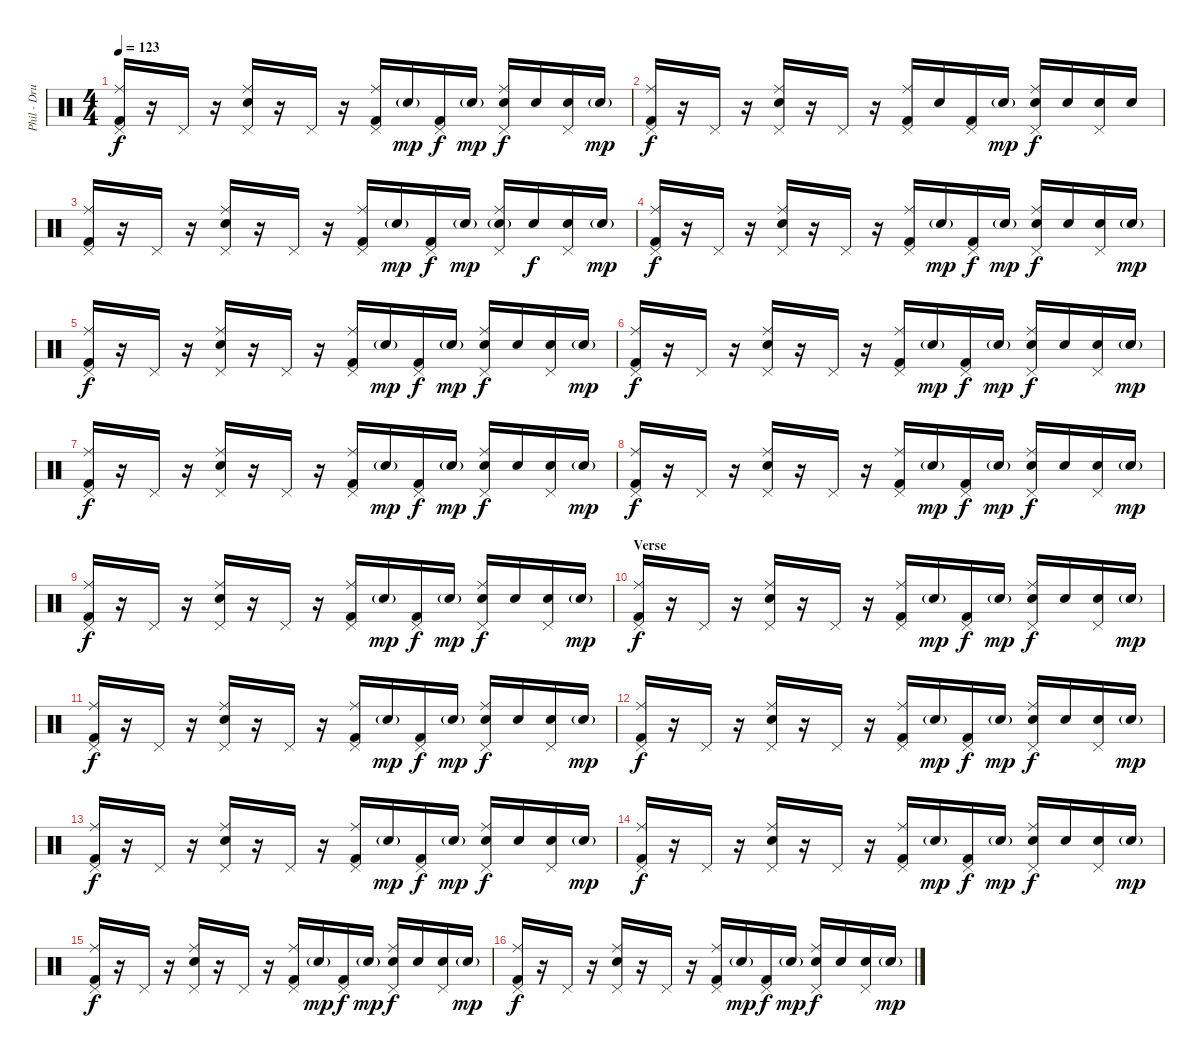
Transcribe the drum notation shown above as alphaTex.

\track ("Phil - Drums" "Phil - Dru") {instrument percussion}
\staff {score}
\articulation defaults
\ts (4 4)
\tempo 123
\clef neutral
\ks c
("Ride (middle)" "Kick (hit) 2" "Pedal Hi-Hat (hit)").16{dy f} r.16 "Pedal Hi-Hat (hit)".16 r.16 ("Ride (middle)" "Snare (hit) 2" "Pedal Hi-Hat (hit)").16 r.16 "Pedal Hi-Hat (hit)".16 r.16 ("Ride (middle)" "Kick (hit) 2" "Pedal Hi-Hat (hit)").16 "Snare (hit) 2"{g}.16{dy mp} ("Kick (hit) 2" "Pedal Hi-Hat (hit)").16{dy f} "Snare (hit) 2"{g}.16{dy mp} ("Ride (middle)" "Snare (hit) 2" "Pedal Hi-Hat (hit)").16{dy f} "Snare (hit) 2".16 ("Snare (hit) 2" "Pedal Hi-Hat (hit)").16 "Snare (hit) 2"{g}.16{dy mp} |
("Ride (middle)" "Kick (hit) 2" "Pedal Hi-Hat (hit)").16{dy f} r.16 "Pedal Hi-Hat (hit)".16 r.16 ("Ride (middle)" "Snare (hit) 2" "Pedal Hi-Hat (hit)").16 r.16 "Pedal Hi-Hat (hit)".16 r.16 ("Ride (middle)" "Kick (hit) 2" "Pedal Hi-Hat (hit)").16 "Snare (hit) 2".16 ("Kick (hit) 2" "Pedal Hi-Hat (hit)").16 "Snare (hit) 2"{g}.16{dy mp} ("Ride (middle)" "Snare (hit) 2" "Pedal Hi-Hat (hit)").16{dy f} "Snare (hit) 2".16 ("Snare (hit) 2" "Pedal Hi-Hat (hit)").16 "Snare (hit) 2".16 |
("Ride (middle)" "Kick (hit) 2" "Pedal Hi-Hat (hit)").16 r.16 "Pedal Hi-Hat (hit)".16 r.16 ("Ride (middle)" "Snare (hit) 2" "Pedal Hi-Hat (hit)").16 r.16 "Pedal Hi-Hat (hit)".16 r.16 ("Ride (middle)" "Kick (hit) 2" "Pedal Hi-Hat (hit)").16 "Snare (hit) 2"{g}.16{dy mp} ("Kick (hit) 2" "Pedal Hi-Hat (hit)").16{dy f} "Snare (hit) 2"{g}.16{dy mp} ("Ride (middle)" "Electric Snare (hit)"{g} "Pedal Hi-Hat (hit)").16 "Snare (hit) 2".16{dy f} ("Snare (hit) 2" "Pedal Hi-Hat (hit)").16 "Snare (hit) 2"{g}.16{dy mp} |
("Ride (middle)" "Kick (hit) 2" "Pedal Hi-Hat (hit)").16{dy f} r.16 "Pedal Hi-Hat (hit)".16 r.16 ("Ride (middle)" "Snare (hit) 2" "Pedal Hi-Hat (hit)").16 r.16 "Pedal Hi-Hat (hit)".16 r.16 ("Ride (middle)" "Kick (hit) 2" "Pedal Hi-Hat (hit)").16 "Snare (hit) 2"{g}.16{dy mp} ("Kick (hit) 2" "Pedal Hi-Hat (hit)").16{dy f} "Snare (hit) 2"{g}.16{dy mp} ("Ride (middle)" "Snare (hit) 2" "Pedal Hi-Hat (hit)").16{dy f} "Snare (hit) 2".16 ("Snare (hit) 2" "Pedal Hi-Hat (hit)").16 "Snare (hit) 2"{g}.16{dy mp} |
("Ride (middle)" "Kick (hit) 2" "Pedal Hi-Hat (hit)").16{dy f} r.16 "Pedal Hi-Hat (hit)".16 r.16 ("Ride (middle)" "Snare (hit) 2" "Pedal Hi-Hat (hit)").16 r.16 "Pedal Hi-Hat (hit)".16 r.16 ("Ride (middle)" "Kick (hit) 2" "Pedal Hi-Hat (hit)").16 "Snare (hit) 2"{g}.16{dy mp} ("Kick (hit) 2" "Pedal Hi-Hat (hit)").16{dy f} "Snare (hit) 2"{g}.16{dy mp} ("Ride (middle)" "Snare (hit) 2" "Pedal Hi-Hat (hit)").16{dy f} "Snare (hit) 2".16 ("Snare (hit) 2" "Pedal Hi-Hat (hit)").16 "Snare (hit) 2"{g}.16{dy mp} |
("Ride (middle)" "Kick (hit) 2" "Pedal Hi-Hat (hit)").16{dy f} r.16 "Pedal Hi-Hat (hit)".16 r.16 ("Ride (middle)" "Snare (hit) 2" "Pedal Hi-Hat (hit)").16 r.16 "Pedal Hi-Hat (hit)".16 r.16 ("Ride (middle)" "Kick (hit) 2" "Pedal Hi-Hat (hit)").16 "Snare (hit) 2"{g}.16{dy mp} ("Kick (hit) 2" "Pedal Hi-Hat (hit)").16{dy f} "Snare (hit) 2"{g}.16{dy mp} ("Ride (middle)" "Snare (hit) 2" "Pedal Hi-Hat (hit)").16{dy f} "Snare (hit) 2".16 ("Snare (hit) 2" "Pedal Hi-Hat (hit)").16 "Snare (hit) 2"{g}.16{dy mp} |
("Ride (middle)" "Kick (hit) 2" "Pedal Hi-Hat (hit)").16{dy f} r.16 "Pedal Hi-Hat (hit)".16 r.16 ("Ride (middle)" "Snare (hit) 2" "Pedal Hi-Hat (hit)").16 r.16 "Pedal Hi-Hat (hit)".16 r.16 ("Ride (middle)" "Kick (hit) 2" "Pedal Hi-Hat (hit)").16 "Snare (hit) 2"{g}.16{dy mp} ("Kick (hit) 2" "Pedal Hi-Hat (hit)").16{dy f} "Snare (hit) 2"{g}.16{dy mp} ("Ride (middle)" "Snare (hit) 2" "Pedal Hi-Hat (hit)").16{dy f} "Snare (hit) 2".16 ("Snare (hit) 2" "Pedal Hi-Hat (hit)").16 "Snare (hit) 2"{g}.16{dy mp} |
("Ride (middle)" "Kick (hit) 2" "Pedal Hi-Hat (hit)").16{dy f} r.16 "Pedal Hi-Hat (hit)".16 r.16 ("Ride (middle)" "Snare (hit) 2" "Pedal Hi-Hat (hit)").16 r.16 "Pedal Hi-Hat (hit)".16 r.16 ("Ride (middle)" "Kick (hit) 2" "Pedal Hi-Hat (hit)").16 "Snare (hit) 2"{g}.16{dy mp} ("Kick (hit) 2" "Pedal Hi-Hat (hit)").16{dy f} "Snare (hit) 2"{g}.16{dy mp} ("Ride (middle)" "Snare (hit) 2" "Pedal Hi-Hat (hit)").16{dy f} "Snare (hit) 2".16 ("Snare (hit) 2" "Pedal Hi-Hat (hit)").16 "Snare (hit) 2"{g}.16{dy mp} |
("Ride (middle)" "Kick (hit) 2" "Pedal Hi-Hat (hit)").16{dy f} r.16 "Pedal Hi-Hat (hit)".16 r.16 ("Ride (middle)" "Snare (hit) 2" "Pedal Hi-Hat (hit)").16 r.16 "Pedal Hi-Hat (hit)".16 r.16 ("Ride (middle)" "Kick (hit) 2" "Pedal Hi-Hat (hit)").16 "Snare (hit) 2"{g}.16{dy mp} ("Kick (hit) 2" "Pedal Hi-Hat (hit)").16{dy f} "Snare (hit) 2"{g}.16{dy mp} ("Ride (middle)" "Snare (hit) 2" "Pedal Hi-Hat (hit)").16{dy f} "Snare (hit) 2".16 ("Snare (hit) 2" "Pedal Hi-Hat (hit)").16 "Snare (hit) 2"{g}.16{dy mp} |
\section ("" "Verse")
("Ride (middle)" "Kick (hit) 2" "Pedal Hi-Hat (hit)").16{dy f} r.16 "Pedal Hi-Hat (hit)".16 r.16 ("Ride (middle)" "Snare (hit) 2" "Pedal Hi-Hat (hit)").16 r.16 "Pedal Hi-Hat (hit)".16 r.16 ("Ride (middle)" "Kick (hit) 2" "Pedal Hi-Hat (hit)").16 "Snare (hit) 2"{g}.16{dy mp} ("Kick (hit) 2" "Pedal Hi-Hat (hit)").16{dy f} "Snare (hit) 2"{g}.16{dy mp} ("Ride (middle)" "Snare (hit) 2" "Pedal Hi-Hat (hit)").16{dy f} "Snare (hit) 2".16 ("Snare (hit) 2" "Pedal Hi-Hat (hit)").16 "Snare (hit) 2"{g}.16{dy mp} |
("Ride (middle)" "Kick (hit) 2" "Pedal Hi-Hat (hit)").16{dy f} r.16 "Pedal Hi-Hat (hit)".16 r.16 ("Ride (middle)" "Snare (hit) 2" "Pedal Hi-Hat (hit)").16 r.16 "Pedal Hi-Hat (hit)".16 r.16 ("Ride (middle)" "Kick (hit) 2" "Pedal Hi-Hat (hit)").16 "Snare (hit) 2"{g}.16{dy mp} ("Kick (hit) 2" "Pedal Hi-Hat (hit)").16{dy f} "Snare (hit) 2"{g}.16{dy mp} ("Ride (middle)" "Snare (hit) 2" "Pedal Hi-Hat (hit)").16{dy f} "Snare (hit) 2".16 ("Snare (hit) 2" "Pedal Hi-Hat (hit)").16 "Snare (hit) 2"{g}.16{dy mp} |
("Ride (middle)" "Kick (hit) 2" "Pedal Hi-Hat (hit)").16{dy f} r.16 "Pedal Hi-Hat (hit)".16 r.16 ("Ride (middle)" "Snare (hit) 2" "Pedal Hi-Hat (hit)").16 r.16 "Pedal Hi-Hat (hit)".16 r.16 ("Ride (middle)" "Kick (hit) 2" "Pedal Hi-Hat (hit)").16 "Snare (hit) 2"{g}.16{dy mp} ("Kick (hit) 2" "Pedal Hi-Hat (hit)").16{dy f} "Snare (hit) 2"{g}.16{dy mp} ("Ride (middle)" "Snare (hit) 2" "Pedal Hi-Hat (hit)").16{dy f} "Snare (hit) 2".16 ("Snare (hit) 2" "Pedal Hi-Hat (hit)").16 "Snare (hit) 2"{g}.16{dy mp} |
("Ride (middle)" "Kick (hit) 2" "Pedal Hi-Hat (hit)").16{dy f} r.16 "Pedal Hi-Hat (hit)".16 r.16 ("Ride (middle)" "Snare (hit) 2" "Pedal Hi-Hat (hit)").16 r.16 "Pedal Hi-Hat (hit)".16 r.16 ("Ride (middle)" "Kick (hit) 2" "Pedal Hi-Hat (hit)").16 "Snare (hit) 2"{g}.16{dy mp} ("Kick (hit) 2" "Pedal Hi-Hat (hit)").16{dy f} "Snare (hit) 2"{g}.16{dy mp} ("Ride (middle)" "Snare (hit) 2" "Pedal Hi-Hat (hit)").16{dy f} "Snare (hit) 2".16 ("Snare (hit) 2" "Pedal Hi-Hat (hit)").16 "Snare (hit) 2"{g}.16{dy mp} |
("Ride (middle)" "Kick (hit) 2" "Pedal Hi-Hat (hit)").16{dy f} r.16 "Pedal Hi-Hat (hit)".16 r.16 ("Ride (middle)" "Snare (hit) 2" "Pedal Hi-Hat (hit)").16 r.16 "Pedal Hi-Hat (hit)".16 r.16 ("Ride (middle)" "Kick (hit) 2" "Pedal Hi-Hat (hit)").16 "Snare (hit) 2"{g}.16{dy mp} ("Kick (hit) 2" "Pedal Hi-Hat (hit)").16{dy f} "Snare (hit) 2"{g}.16{dy mp} ("Ride (middle)" "Snare (hit) 2" "Pedal Hi-Hat (hit)").16{dy f} "Snare (hit) 2".16 ("Snare (hit) 2" "Pedal Hi-Hat (hit)").16 "Snare (hit) 2"{g}.16{dy mp} |
("Ride (middle)" "Kick (hit) 2" "Pedal Hi-Hat (hit)").16{dy f} r.16 "Pedal Hi-Hat (hit)".16 r.16 ("Ride (middle)" "Snare (hit) 2" "Pedal Hi-Hat (hit)").16 r.16 "Pedal Hi-Hat (hit)".16 r.16 ("Ride (middle)" "Kick (hit) 2" "Pedal Hi-Hat (hit)").16 "Snare (hit) 2"{g}.16{dy mp} ("Kick (hit) 2" "Pedal Hi-Hat (hit)").16{dy f} "Snare (hit) 2"{g}.16{dy mp} ("Ride (middle)" "Snare (hit) 2" "Pedal Hi-Hat (hit)").16{dy f} "Snare (hit) 2".16 ("Snare (hit) 2" "Pedal Hi-Hat (hit)").16 "Snare (hit) 2"{g}.16{dy mp} |
("Ride (middle)" "Kick (hit) 2" "Pedal Hi-Hat (hit)").16{dy f} r.16 "Pedal Hi-Hat (hit)".16 r.16 ("Ride (middle)" "Snare (hit) 2" "Pedal Hi-Hat (hit)").16 r.16 "Pedal Hi-Hat (hit)".16 r.16 ("Ride (middle)" "Kick (hit) 2" "Pedal Hi-Hat (hit)").16 "Snare (hit) 2"{g}.16{dy mp} ("Kick (hit) 2" "Pedal Hi-Hat (hit)").16{dy f} "Snare (hit) 2"{g}.16{dy mp} ("Ride (middle)" "Snare (hit) 2" "Pedal Hi-Hat (hit)").16{dy f} "Snare (hit) 2".16 ("Snare (hit) 2" "Pedal Hi-Hat (hit)").16 "Snare (hit) 2"{g}.16{dy mp}
